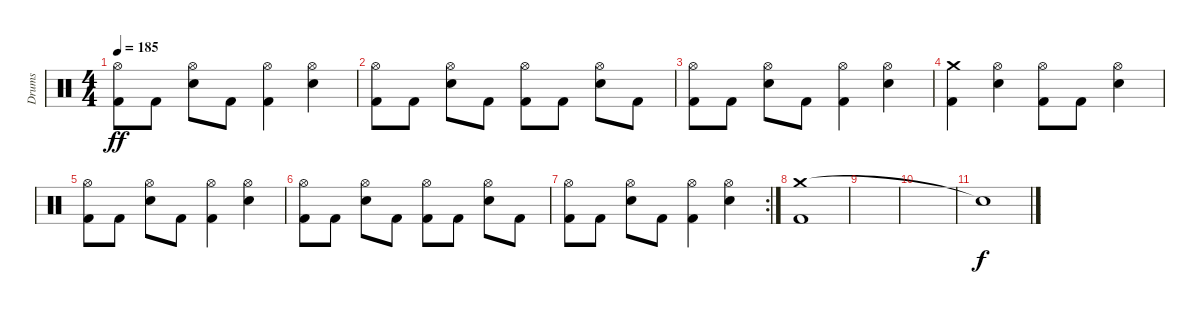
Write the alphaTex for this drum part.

\track ("Drums" "Drums") {instrument percussion}
\staff {score}
\articulation defaults
\ts (4 4)
\tempo 185
\clef neutral
\ks c
("Hi-Hat (open)" "Kick (hit) 2").8{dy ff} "Kick (hit) 2".8 ("Hi-Hat (open)" "Electric Snare (hit)").8 "Kick (hit) 2".8 ("Hi-Hat (open)" "Kick (hit) 2").4 ("Hi-Hat (open)" "Electric Snare (hit)").4 |
("Hi-Hat (open)" "Kick (hit) 2").8 "Kick (hit) 2".8 ("Hi-Hat (open)" "Electric Snare (hit)").8 "Kick (hit) 2".8 ("Hi-Hat (open)" "Kick (hit) 2").8 "Kick (hit) 2".8 ("Hi-Hat (open)" "Electric Snare (hit)").8 "Kick (hit) 2".8 |
("Hi-Hat (open)" "Kick (hit) 2").8 "Kick (hit) 2".8 ("Hi-Hat (open)" "Electric Snare (hit)").8 "Kick (hit) 2".8 ("Hi-Hat (open)" "Kick (hit) 2").4 ("Hi-Hat (open)" "Electric Snare (hit)").4 |
("Crash medium (hit)" "Kick (hit) 2").4 ("Hi-Hat (open)" "Electric Snare (hit)").4 ("Hi-Hat (open)" "Kick (hit) 2").8 "Kick (hit) 2".8 ("Hi-Hat (open)" "Electric Snare (hit)").4 |
("Hi-Hat (open)" "Kick (hit) 2").8 "Kick (hit) 2".8 ("Hi-Hat (open)" "Electric Snare (hit)").8 "Kick (hit) 2".8 ("Hi-Hat (open)" "Kick (hit) 2").4 ("Hi-Hat (open)" "Electric Snare (hit)").4 |
("Hi-Hat (open)" "Kick (hit) 2").8 "Kick (hit) 2".8 ("Hi-Hat (open)" "Electric Snare (hit)").8 "Kick (hit) 2".8 ("Hi-Hat (open)" "Kick (hit) 2").8 "Kick (hit) 2".8 ("Hi-Hat (open)" "Electric Snare (hit)").8 "Kick (hit) 2".8 |
\rc 2
("Hi-Hat (open)" "Kick (hit) 2").8 "Kick (hit) 2".8 ("Hi-Hat (open)" "Electric Snare (hit)").8 "Kick (hit) 2".8 ("Hi-Hat (open)" "Kick (hit) 2").4 ("Hi-Hat (open)" "Electric Snare (hit)").4 |
("Crash medium (hit)" "Kick (hit) 2").1 |
|
|
"Snare (hit)"{t}.1{dy f}
